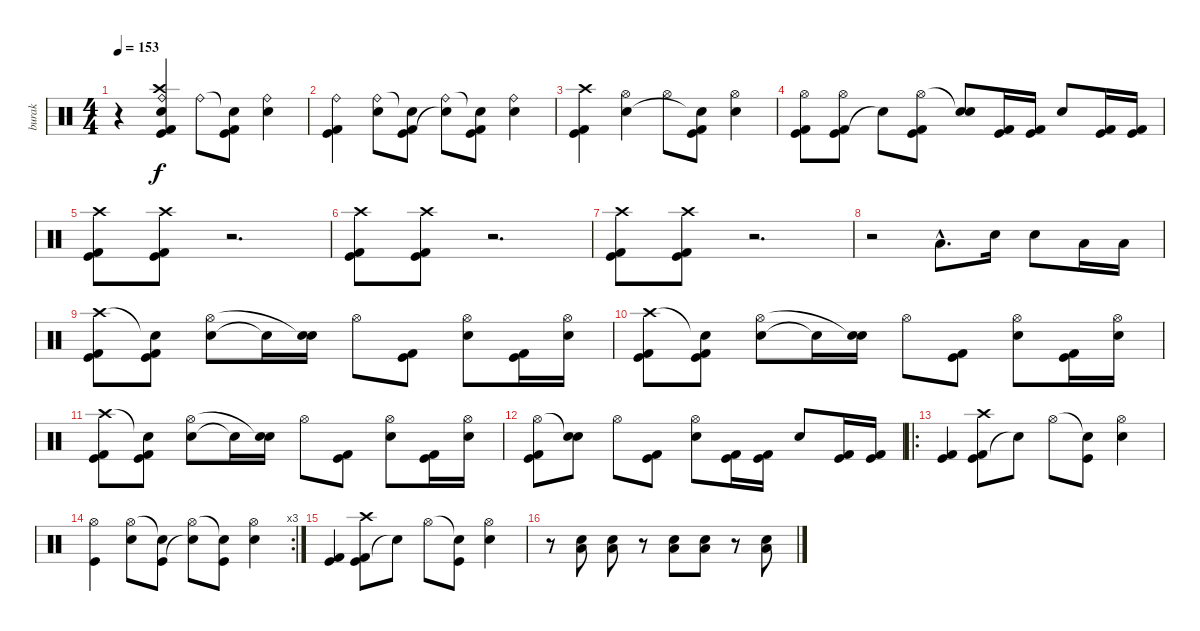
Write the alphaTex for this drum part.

\track ("burak" "burak") {instrument percussion}
\staff {score}
\articulation defaults
\ts (4 4)
\tempo 153
\clef neutral
\ks c
r.4{dy f} ("Electric Snare (hit)" "Ride (bell)" "Crash high (hit)" "Kick (hit) 2" "Kick (hit)").4 "Ride (bell)".8 ("Snare (hit)"{t} "Kick (hit) 2" "Kick (hit)").8 ("Electric Snare (hit)" "Ride (bell)").4 |
("Kick (hit) 2" "Kick (hit)" "Ride (bell)").4 ("Electric Snare (hit)" "Ride (bell)").8 ("Kick (hit)" "Snare (hit)"{t} "Kick (hit) 2").8 ("Snare (hit)"{t} "Ride (bell)").8 ("Kick (hit)" "Snare (hit)"{t} "Kick (hit) 2").8 ("Electric Snare (hit)" "Ride (bell)").4 |
("Kick (hit)" "Crash high (hit)" "Kick (hit) 2").4 ("Hi-Hat (open)" "Electric Snare (hit)").4 "Hi-Hat (open)".8 ("Kick (hit)" "Snare (hit)"{t} "Kick (hit) 2").8 ("Hi-Hat (open)" "Electric Snare (hit)").4 |
("Kick (hit) 2" "Hi-Hat (open)" "Kick (hit)").8 ("Kick (hit)" "Hi-Hat (open)" "Kick (hit) 2").8 "Snare (hit)"{t}.8 ("Kick (hit)" "Hi-Hat (open)" "Kick (hit) 2").8 ("Electric Snare (hit)" "Snare (hit)"{t}).8 ("Kick (hit)" "Kick (hit) 2").16 ("Kick (hit)" "Kick (hit) 2").16 "Electric Snare (hit)".8 ("Kick (hit) 2" "Kick (hit)").16 ("Kick (hit) 2" "Kick (hit)").16 |
("Crash high (hit)" "Kick (hit)" "Kick (hit) 2").8 ("Crash high (hit)" "Kick (hit)" "Kick (hit) 2").8 r.2{d} |
("Crash high (hit)" "Kick (hit)" "Kick (hit) 2").8 ("Crash high (hit)" "Kick (hit)" "Kick (hit) 2").8 r.2{d} |
("Crash high (hit)" "Kick (hit)" "Kick (hit) 2").8 ("Crash high (hit)" "Kick (hit)" "Kick (hit) 2").8 r.2{d} |
r.2 "Low Tom (hit)"{hac}.8{d} "Electric Snare (hit)".16 "Electric Snare (hit)".8 "Low Tom (hit)".16 "Low Tom (hit)".16 |
("Kick (hit)" "Crash high (hit)" "Kick (hit) 2").8 ("Kick (hit)" "Snare (hit)"{t} "Kick (hit) 2").8 ("Electric Snare (hit)" "Hi-Hat (open)").8 "Snare (hit)"{t}.16 ("Electric Snare (hit)" "Snare (hit)"{t}).16 "Hi-Hat (open)".8 ("Kick (hit)" "Kick (hit) 2").8 ("Electric Snare (hit)" "Hi-Hat (open)").8 ("Kick (hit)" "Kick (hit) 2").16 ("Electric Snare (hit)" "Hi-Hat (open)").16 |
("Kick (hit)" "Crash high (hit)" "Kick (hit) 2").8 ("Kick (hit)" "Snare (hit)"{t} "Kick (hit) 2").8 ("Electric Snare (hit)" "Hi-Hat (open)").8 "Snare (hit)"{t}.16 ("Electric Snare (hit)" "Snare (hit)"{t}).16 "Hi-Hat (open)".8 ("Kick (hit)" "Kick (hit) 2").8 ("Electric Snare (hit)" "Hi-Hat (open)").8 ("Kick (hit)" "Kick (hit) 2").16 ("Electric Snare (hit)" "Hi-Hat (open)").16 |
("Kick (hit)" "Crash high (hit)" "Kick (hit) 2").8 ("Kick (hit)" "Snare (hit)"{t} "Kick (hit) 2").8 ("Electric Snare (hit)" "Hi-Hat (open)").8 "Snare (hit)"{t}.16 ("Electric Snare (hit)" "Snare (hit)"{t}).16 "Hi-Hat (open)".8 ("Kick (hit)" "Kick (hit) 2").8 ("Electric Snare (hit)" "Hi-Hat (open)").8 ("Kick (hit)" "Kick (hit) 2").16 ("Electric Snare (hit)" "Hi-Hat (open)").16 |
("Kick (hit)" "Hi-Hat (open)" "Kick (hit) 2").8 ("Electric Snare (hit)" "Snare (hit)"{t}).8 "Hi-Hat (open)".8 ("Kick (hit)" "Kick (hit) 2").8 ("Electric Snare (hit)" "Hi-Hat (open)").8 ("Kick (hit)" "Kick (hit) 2").16 ("Kick (hit)" "Kick (hit) 2").16 "Electric Snare (hit)".8 ("Kick (hit)" "Kick (hit) 2").16 ("Kick (hit)" "Kick (hit) 2").16 |
\ro
("Kick (hit)" "Kick (hit) 2").4 ("Kick (hit)" "Crash high (hit)" "Kick (hit) 2").8 "Snare (hit)"{t}.8 "Hi-Hat (open)".8 ("Snare (hit)"{t} "Kick (hit)").8 ("Hi-Hat (open)" "Electric Snare (hit)").4 |
\rc 3
("Hi-Hat (open)" "Kick (hit)").4 ("Hi-Hat (open)" "Electric Snare (hit)").8 ("Snare (hit)"{t} "Kick (hit)").8 ("Hi-Hat (open)" "Snare (hit)"{t}).8 ("Snare (hit)"{t} "Kick (hit)").8 ("Hi-Hat (open)" "Electric Snare (hit)").4 |
("Kick (hit)" "Kick (hit) 2").4 ("Kick (hit)" "Crash high (hit)" "Kick (hit) 2").8 "Snare (hit)"{t}.8 "Hi-Hat (open)".8 ("Snare (hit)"{t} "Kick (hit)").8 ("Hi-Hat (open)" "Electric Snare (hit)").4 |
r.8 ("Electric Snare (hit)" "Low Floor Tom (hit)").8 ("Electric Snare (hit)" "Low Floor Tom (hit)").8 r.8 ("Electric Snare (hit)" "Low Floor Tom (hit)").8 ("Electric Snare (hit)" "Low Floor Tom (hit)").8 r.8 ("Electric Snare (hit)" "Low Floor Tom (hit)").8
